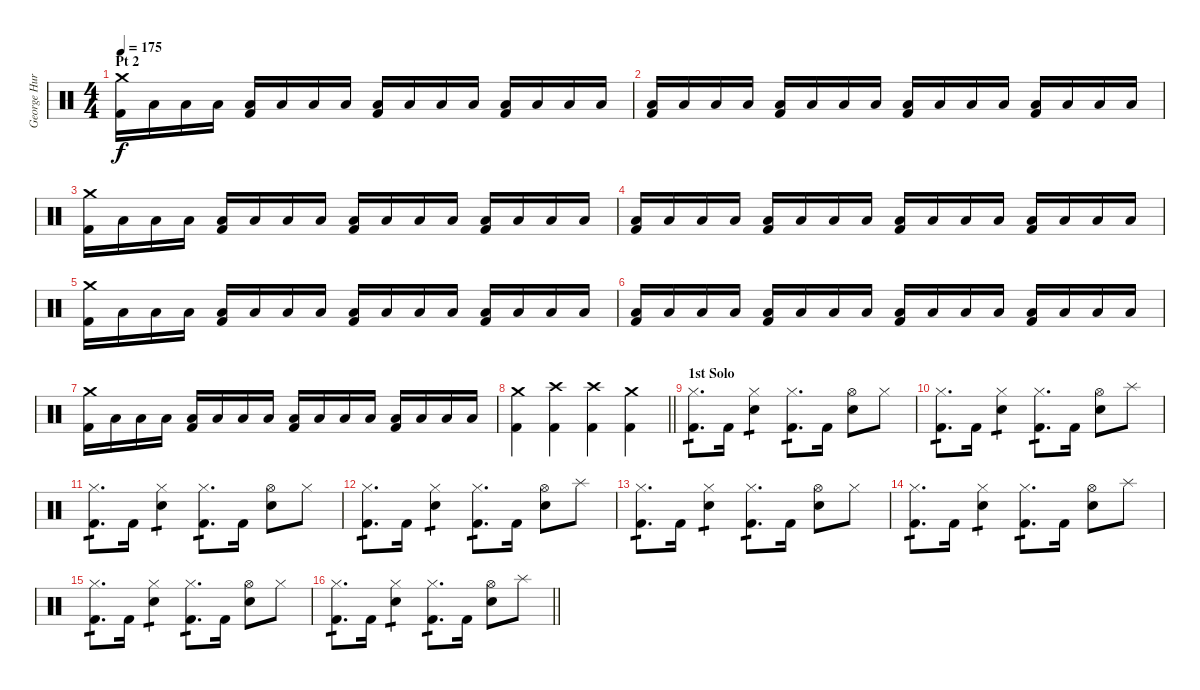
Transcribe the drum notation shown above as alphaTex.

\track ("George Hurley [Drums]" "George Hur") {instrument percussion}
\staff {score}
\articulation defaults
\ts (4 4)
\section ("" "Pt 2")
\tempo 175
\clef neutral
\ks c
("Crash medium (hit)" "Kick (hit) 2").16{dy f} "Low Tom (hit)".16 "Low Tom (hit)".16 "Low Tom (hit)".16 ("Low Tom (hit)" "Kick (hit) 2").16 "Low Tom (hit)".16 "Low Tom (hit)".16 "Low Tom (hit)".16 ("Low Tom (hit)" "Kick (hit) 2").16 "Low Tom (hit)".16 "Low Tom (hit)".16 "Low Tom (hit)".16 ("Low Tom (hit)" "Kick (hit) 2").16 "Low Tom (hit)".16 "Low Tom (hit)".16 "Low Tom (hit)".16 |
("Low Tom (hit)" "Kick (hit) 2").16 "Low Tom (hit)".16 "Low Tom (hit)".16 "Low Tom (hit)".16 ("Low Tom (hit)" "Kick (hit) 2").16 "Low Tom (hit)".16 "Low Tom (hit)".16 "Low Tom (hit)".16 ("Low Tom (hit)" "Kick (hit) 2").16 "Low Tom (hit)".16 "Low Tom (hit)".16 "Low Tom (hit)".16 ("Low Tom (hit)" "Kick (hit) 2").16 "Low Tom (hit)".16 "Low Tom (hit)".16 "Low Tom (hit)".16 |
("Crash medium (hit)" "Kick (hit) 2").16 "Low Tom (hit)".16 "Low Tom (hit)".16 "Low Tom (hit)".16 ("Low Tom (hit)" "Kick (hit) 2").16 "Low Tom (hit)".16 "Low Tom (hit)".16 "Low Tom (hit)".16 ("Low Tom (hit)" "Kick (hit) 2").16 "Low Tom (hit)".16 "Low Tom (hit)".16 "Low Tom (hit)".16 ("Low Tom (hit)" "Kick (hit) 2").16 "Low Tom (hit)".16 "Low Tom (hit)".16 "Low Tom (hit)".16 |
("Low Tom (hit)" "Kick (hit) 2").16 "Low Tom (hit)".16 "Low Tom (hit)".16 "Low Tom (hit)".16 ("Low Tom (hit)" "Kick (hit) 2").16 "Low Tom (hit)".16 "Low Tom (hit)".16 "Low Tom (hit)".16 ("Low Tom (hit)" "Kick (hit) 2").16 "Low Tom (hit)".16 "Low Tom (hit)".16 "Low Tom (hit)".16 ("Low Tom (hit)" "Kick (hit) 2").16 "Low Tom (hit)".16 "Low Tom (hit)".16 "Low Tom (hit)".16 |
("Crash medium (hit)" "Kick (hit) 2").16 "Low Tom (hit)".16 "Low Tom (hit)".16 "Low Tom (hit)".16 ("Low Tom (hit)" "Kick (hit) 2").16 "Low Tom (hit)".16 "Low Tom (hit)".16 "Low Tom (hit)".16 ("Low Tom (hit)" "Kick (hit) 2").16 "Low Tom (hit)".16 "Low Tom (hit)".16 "Low Tom (hit)".16 ("Low Tom (hit)" "Kick (hit) 2").16 "Low Tom (hit)".16 "Low Tom (hit)".16 "Low Tom (hit)".16 |
("Low Tom (hit)" "Kick (hit) 2").16 "Low Tom (hit)".16 "Low Tom (hit)".16 "Low Tom (hit)".16 ("Low Tom (hit)" "Kick (hit) 2").16 "Low Tom (hit)".16 "Low Tom (hit)".16 "Low Tom (hit)".16 ("Low Tom (hit)" "Kick (hit) 2").16 "Low Tom (hit)".16 "Low Tom (hit)".16 "Low Tom (hit)".16 ("Low Tom (hit)" "Kick (hit) 2").16 "Low Tom (hit)".16 "Low Tom (hit)".16 "Low Tom (hit)".16 |
("Crash medium (hit)" "Kick (hit) 2").16 "Low Tom (hit)".16 "Low Tom (hit)".16 "Low Tom (hit)".16 ("Low Tom (hit)" "Kick (hit) 2").16 "Low Tom (hit)".16 "Low Tom (hit)".16 "Low Tom (hit)".16 ("Low Tom (hit)" "Kick (hit) 2").16 "Low Tom (hit)".16 "Low Tom (hit)".16 "Low Tom (hit)".16 ("Low Tom (hit)" "Kick (hit) 2").16 "Low Tom (hit)".16 "Low Tom (hit)".16 "Low Tom (hit)".16 |
\barLineRight lightlight
("Crash medium (hit)" "Kick (hit) 2").4 ("Crash high (hit)" "Kick (hit) 2").4 ("Crash high (hit)" "Kick (hit) 2").4 ("Crash medium (hit)" "Kick (hit) 2").4 |
\section ("" "1st Solo")
("Hi-Hat (closed)" "Kick (hit) 2").8{d tp 1} "Kick (hit) 2".16 ("Hi-Hat (closed)" "Electric Snare (hit)").4{tp 1} ("Hi-Hat (closed)" "Kick (hit) 2").8{d tp 1} "Kick (hit) 2".16 ("Hi-Hat (open)" "Electric Snare (hit)").8 "Hi-Hat (closed)".8 |
("Hi-Hat (closed)" "Kick (hit) 2").8{d tp 1} "Kick (hit) 2".16 ("Hi-Hat (closed)" "Electric Snare (hit)").4{tp 1} ("Hi-Hat (closed)" "Kick (hit) 2").8{d tp 1} "Kick (hit) 2".16 ("Hi-Hat (open)" "Electric Snare (hit)").8 "Splash (hit)".8 |
("Hi-Hat (closed)" "Kick (hit) 2").8{d tp 1} "Kick (hit) 2".16 ("Hi-Hat (closed)" "Electric Snare (hit)").4{tp 1} ("Hi-Hat (closed)" "Kick (hit) 2").8{d tp 1} "Kick (hit) 2".16 ("Hi-Hat (open)" "Electric Snare (hit)").8 "Hi-Hat (closed)".8 |
("Hi-Hat (closed)" "Kick (hit) 2").8{d tp 1} "Kick (hit) 2".16 ("Hi-Hat (closed)" "Electric Snare (hit)").4{tp 1} ("Hi-Hat (closed)" "Kick (hit) 2").8{d tp 1} "Kick (hit) 2".16 ("Hi-Hat (open)" "Electric Snare (hit)").8 "Splash (hit)".8 |
("Hi-Hat (closed)" "Kick (hit) 2").8{d tp 1} "Kick (hit) 2".16 ("Hi-Hat (closed)" "Electric Snare (hit)").4{tp 1} ("Hi-Hat (closed)" "Kick (hit) 2").8{d tp 1} "Kick (hit) 2".16 ("Hi-Hat (open)" "Electric Snare (hit)").8 "Hi-Hat (closed)".8 |
("Hi-Hat (closed)" "Kick (hit) 2").8{d tp 1} "Kick (hit) 2".16 ("Hi-Hat (closed)" "Electric Snare (hit)").4{tp 1} ("Hi-Hat (closed)" "Kick (hit) 2").8{d tp 1} "Kick (hit) 2".16 ("Hi-Hat (open)" "Electric Snare (hit)").8 "Splash (hit)".8 |
("Hi-Hat (closed)" "Kick (hit) 2").8{d tp 1} "Kick (hit) 2".16 ("Hi-Hat (closed)" "Electric Snare (hit)").4{tp 1} ("Hi-Hat (closed)" "Kick (hit) 2").8{d tp 1} "Kick (hit) 2".16 ("Hi-Hat (open)" "Electric Snare (hit)").8 "Hi-Hat (closed)".8 |
\barLineRight lightlight
("Hi-Hat (closed)" "Kick (hit) 2").8{d tp 1} "Kick (hit) 2".16 ("Hi-Hat (closed)" "Electric Snare (hit)").4{tp 1} ("Hi-Hat (closed)" "Kick (hit) 2").8{d tp 1} "Kick (hit) 2".16 ("Hi-Hat (open)" "Electric Snare (hit)").8 "Splash (hit)".8
